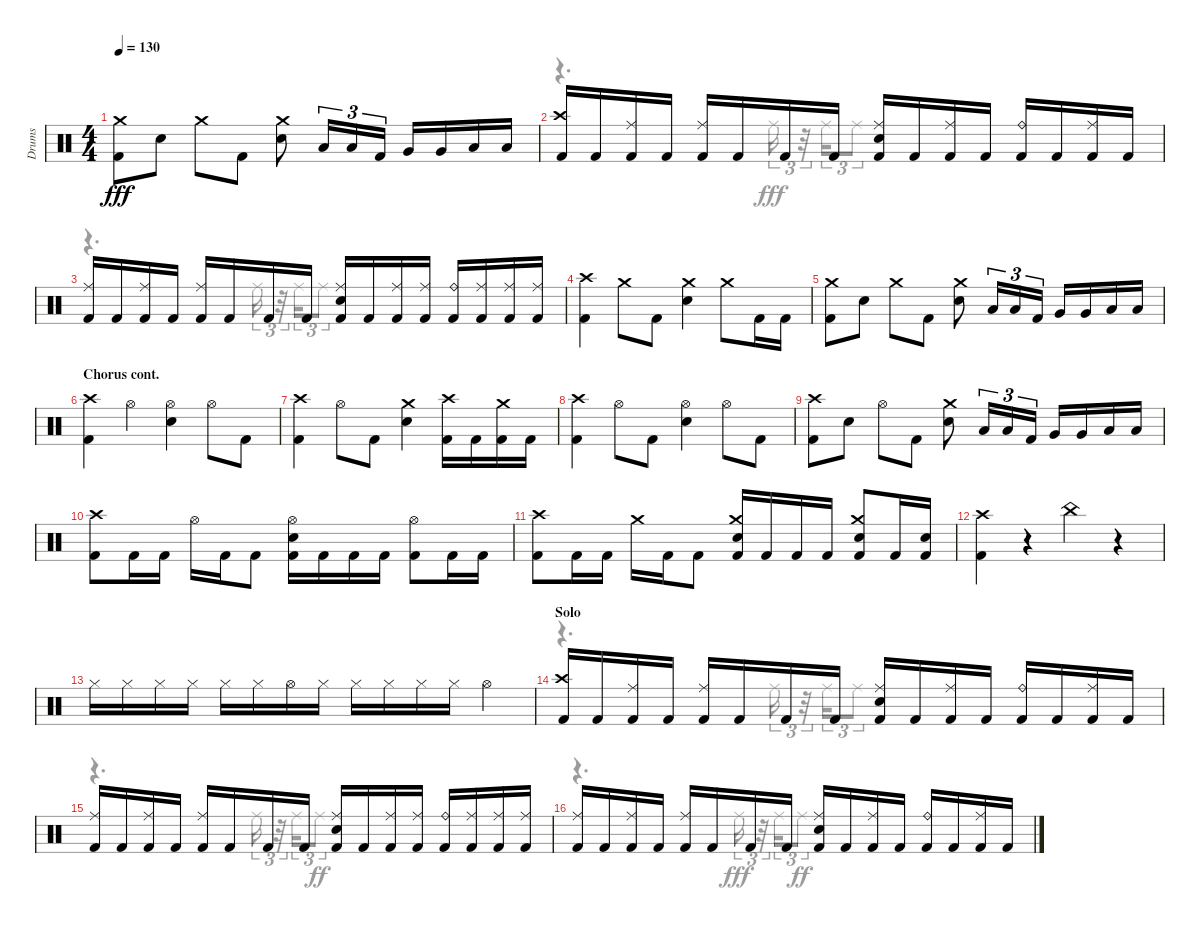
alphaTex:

\track ("Drums" "Drums") {instrument percussion}
\staff {score}
\articulation defaults
\voice
\ts (4 4)
\tempo 130
\clef neutral
\ks aminor
("Kick (hit) 2" "Crash medium (hit)").8{dy fff} "Snare (hit) 2".8 "Crash medium (hit)".8 "Kick (hit) 2".8 ("Snare (hit) 2" "Crash medium (hit)").8 "Low Tom (hit)".16{tu (3 2)} "Low Tom (hit)".16{tu (3 2)} "Kick (hit) 2".16{tu (3 2)} "Very Low Tom (hit)".16 "Very Low Tom (hit)".16 "Low Floor Tom (hit)".16 "Low Floor Tom (hit)".16 |
("Kick (hit) 2" "Crash high (hit)").16 "Kick (hit) 2".16 ("Kick (hit) 2" "Ride (middle)").16 "Kick (hit) 2".16 ("Kick (hit) 2" "Ride (middle)").16 "Kick (hit) 2".16 "Kick (hit) 2".16 "Kick (hit) 2".16 ("Kick (hit) 2" "Snare (hit) 2" "Ride (middle)").16 "Kick (hit) 2".16 ("Kick (hit) 2" "Ride (middle)").16 "Kick (hit) 2".16 ("Kick (hit) 2" "Ride (bell)").16 "Kick (hit) 2".16 ("Kick (hit) 2" "Ride (middle)").16 "Kick (hit) 2".16 |
("Kick (hit) 2" "Ride (middle)").16 "Kick (hit) 2".16 ("Kick (hit) 2" "Ride (middle)").16 "Kick (hit) 2".16 ("Kick (hit) 2" "Ride (middle)").16 "Kick (hit) 2".16 "Kick (hit) 2".16 "Kick (hit) 2".16 ("Kick (hit) 2" "Snare (hit) 2" "Ride (middle)").16 "Kick (hit) 2".16 ("Kick (hit) 2" "Ride (middle)").16 ("Kick (hit) 2" "Ride (middle)").16 ("Kick (hit) 2" "Ride (bell)").16 ("Kick (hit) 2" "Ride (middle)").16 ("Kick (hit) 2" "Ride (middle)").16 ("Kick (hit) 2" "Ride (middle)").16 |
("Kick (hit) 2" "Crash high (hit)").4 "Crash medium (hit)".8 "Kick (hit) 2".8 ("Snare (hit) 2" "Crash medium (hit)").4 "Crash medium (hit)".8 "Kick (hit) 2".16 "Kick (hit) 2".16 |
("Kick (hit) 2" "Crash medium (hit)").8 "Snare (hit) 2".8 "Crash medium (hit)".8 "Kick (hit) 2".8 ("Snare (hit) 2" "Crash medium (hit)").8 "Low Tom (hit)".16{tu (3 2)} "Low Tom (hit)".16{tu (3 2)} "Kick (hit) 2".16{tu (3 2)} "Very Low Tom (hit)".16 "Very Low Tom (hit)".16 "Low Floor Tom (hit)".16 "Low Floor Tom (hit)".16 |
\section ("" "Chorus cont.")
("Kick (hit) 2" "Crash high (hit)").4 "Hi-Hat (open)".4 ("Snare (hit) 2" "Hi-Hat (open)").4 "Hi-Hat (open)".8 "Kick (hit) 2".8 |
("Kick (hit) 2" "Crash high (hit)").4 "Hi-Hat (open)".8 "Kick (hit) 2".8 ("Snare (hit) 2" "Crash medium (hit)").4 ("Kick (hit) 2" "Crash high (hit)").16 "Kick (hit) 2".16 ("Kick (hit) 2" "Crash medium (hit)").16 "Kick (hit) 2".16 |
("Kick (hit) 2" "Crash high (hit)").4 "Hi-Hat (open)".8 "Kick (hit) 2".8 ("Snare (hit) 2" "Hi-Hat (open)").4 "Hi-Hat (open)".8 "Kick (hit) 2".8 |
("Kick (hit) 2" "Crash high (hit)").8 "Snare (hit) 2".8 "Hi-Hat (open)".8 "Kick (hit) 2".8 ("Snare (hit) 2" "Crash medium (hit)").8 "Low Tom (hit)".16{tu (3 2)} "Low Tom (hit)".16{tu (3 2)} "Kick (hit) 2".16{tu (3 2)} "Very Low Tom (hit)".16 "Very Low Tom (hit)".16 "Low Floor Tom (hit)".16 "Low Floor Tom (hit)".16 |
("Kick (hit) 2" "Crash high (hit)").8 "Kick (hit) 2".16 "Kick (hit) 2".16 "Hi-Hat (open)".16 "Kick (hit) 2".16 "Kick (hit) 2".8 ("Kick (hit) 2" "Snare (hit) 2" "Hi-Hat (open)").16 "Kick (hit) 2".16 "Kick (hit) 2".16 "Kick (hit) 2".16 ("Kick (hit) 2" "Hi-Hat (open)").8 "Kick (hit) 2".16 "Kick (hit) 2".16 |
("Kick (hit) 2" "Crash high (hit)").8 "Kick (hit) 2".16 "Kick (hit) 2".16 "Crash medium (hit)".16 "Kick (hit) 2".16 "Kick (hit) 2".8 ("Kick (hit) 2" "Snare (hit) 2" "Crash medium (hit)").16 "Kick (hit) 2".16 "Kick (hit) 2".16 "Kick (hit) 2".16 ("Kick (hit) 2" "Snare (hit) 2" "Crash medium (hit)").8 "Kick (hit) 2".16 ("Kick (hit) 2" "Snare (hit) 2").16 |
("Kick (hit) 2" "Crash high (hit)").4 r.4 "China (hit)".4 r.4 |
"Hi-Hat (closed)".16 "Hi-Hat (closed)".16 "Hi-Hat (closed)".16 "Hi-Hat (closed)".16 "Hi-Hat (closed)".16 "Hi-Hat (closed)".16 "Hi-Hat (open)".16 "Hi-Hat (closed)".16 "Hi-Hat (closed)".16 "Hi-Hat (closed)".16 "Hi-Hat (closed)".16 "Hi-Hat (closed)".16 "Hi-Hat (open)".4 |
\section ("" "Solo")
("Kick (hit) 2" "Crash high (hit)").16 "Kick (hit) 2".16 ("Kick (hit) 2" "Ride (middle)").16 "Kick (hit) 2".16 ("Kick (hit) 2" "Ride (middle)").16 "Kick (hit) 2".16 "Kick (hit) 2".16 "Kick (hit) 2".16 ("Kick (hit) 2" "Snare (hit) 2" "Ride (middle)").16 "Kick (hit) 2".16 ("Kick (hit) 2" "Ride (middle)").16 "Kick (hit) 2".16 ("Kick (hit) 2" "Ride (bell)").16 "Kick (hit) 2".16 ("Kick (hit) 2" "Ride (middle)").16 "Kick (hit) 2".16 |
("Kick (hit) 2" "Ride (middle)").16 "Kick (hit) 2".16 ("Kick (hit) 2" "Ride (middle)").16 "Kick (hit) 2".16 ("Kick (hit) 2" "Ride (middle)").16 "Kick (hit) 2".16 "Kick (hit) 2".16 "Kick (hit) 2".16 ("Kick (hit) 2" "Snare (hit) 2" "Ride (middle)").16 "Kick (hit) 2".16 ("Kick (hit) 2" "Ride (middle)").16 ("Kick (hit) 2" "Ride (middle)").16 ("Kick (hit) 2" "Ride (bell)").16 ("Kick (hit) 2" "Ride (middle)").16 ("Kick (hit) 2" "Ride (middle)").16 ("Kick (hit) 2" "Ride (middle)").16 |
("Kick (hit) 2" "Ride (middle)").16 "Kick (hit) 2".16 ("Kick (hit) 2" "Ride (middle)").16 "Kick (hit) 2".16 ("Kick (hit) 2" "Ride (middle)").16 "Kick (hit) 2".16 "Kick (hit) 2".16 "Kick (hit) 2".16 ("Kick (hit) 2" "Snare (hit) 2" "Ride (middle)").16 "Kick (hit) 2".16 ("Kick (hit) 2" "Ride (middle)").16 "Kick (hit) 2".16 ("Kick (hit) 2" "Ride (bell)").16 "Kick (hit) 2".16 ("Kick (hit) 2" "Ride (middle)").16 "Kick (hit) 2".16
\voice
\clef neutral
\ottava regular
\simile none
\ks aminor
|
r.4{d} "Ride (middle)".16{tu (3 2) dy fff} r.32{tu (3 2)} "Ride (middle)".16{tu (3 2)} "Ride (middle)".8{tu (3 2)} |
r.4{d} "Ride (middle)".16{tu (3 2)} r.32{tu (3 2)} "Ride (middle)".16{tu (3 2)} "Ride (middle)".8{tu (3 2)} |
|
|
|
|
|
|
|
|
|
|
r.4{d} "Ride (middle)".16{tu (3 2)} r.32{tu (3 2)} "Ride (middle)".16{tu (3 2)} "Ride (middle)".8{tu (3 2)} |
r.4{d} "Ride (middle)".16{tu (3 2)} r.32{tu (3 2)} "Ride (middle)".16{tu (3 2)} "Ride (middle)".8{tu (3 2) dy ff} |
r.4{d} "Ride (middle)".16{tu (3 2) dy fff} r.32{tu (3 2)} "Ride (middle)".16{tu (3 2)} "Ride (middle)".8{tu (3 2) dy ff}
